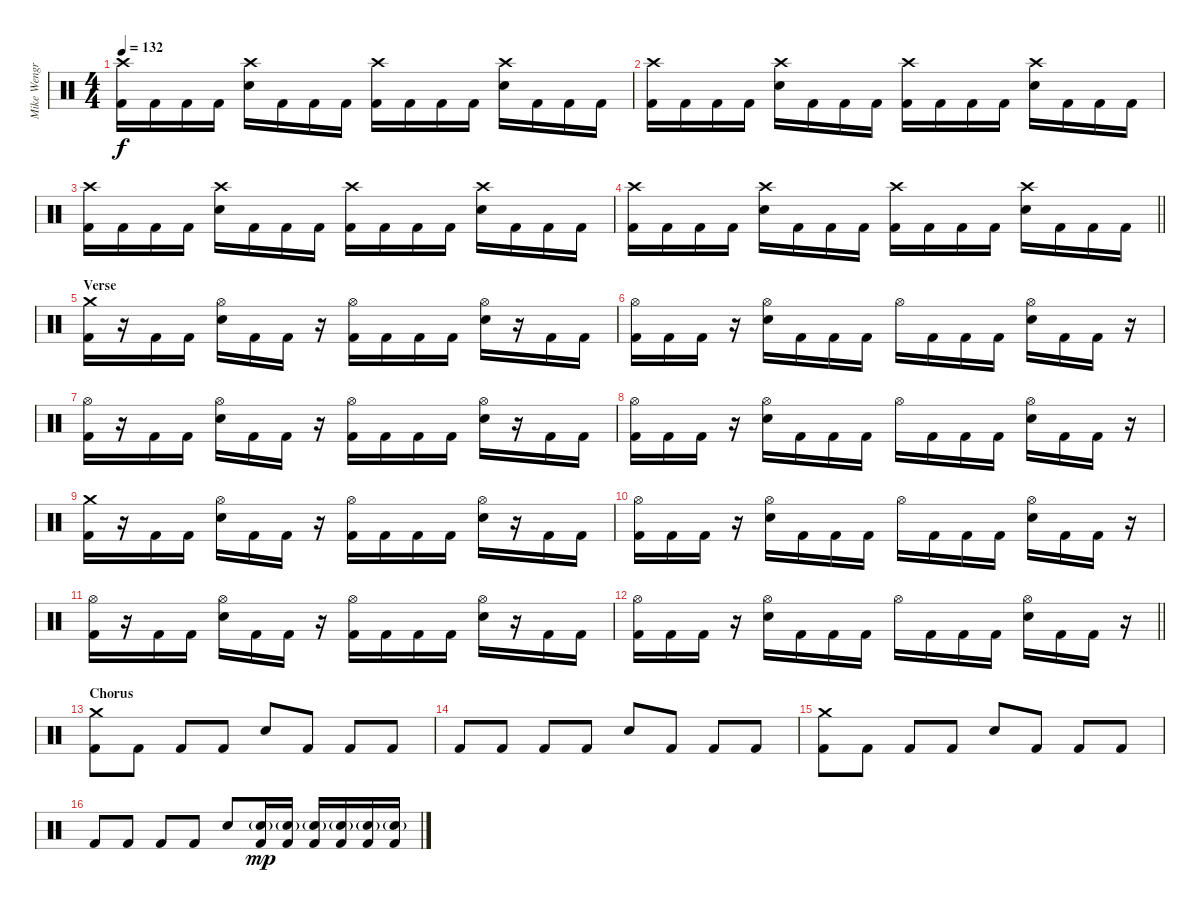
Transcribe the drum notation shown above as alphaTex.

\track ("Mike Wengren" "Mike Wengr") {instrument percussion}
\staff {score}
\articulation defaults
\ts (4 4)
\tempo 132
\clef neutral
\ks c
("Crash high (hit)" "Kick (hit) 2").16{dy f} "Kick (hit) 2".16 "Kick (hit) 2".16 "Kick (hit) 2".16 ("Crash high (hit)" "Electric Snare (hit)").16 "Kick (hit) 2".16 "Kick (hit) 2".16 "Kick (hit) 2".16 ("Crash high (hit)" "Kick (hit) 2").16 "Kick (hit) 2".16 "Kick (hit) 2".16 "Kick (hit) 2".16 ("Crash high (hit)" "Electric Snare (hit)").16 "Kick (hit) 2".16 "Kick (hit) 2".16 "Kick (hit) 2".16 |
("Crash high (hit)" "Kick (hit) 2").16 "Kick (hit) 2".16 "Kick (hit) 2".16 "Kick (hit) 2".16 ("Crash high (hit)" "Electric Snare (hit)").16 "Kick (hit) 2".16 "Kick (hit) 2".16 "Kick (hit) 2".16 ("Crash high (hit)" "Kick (hit) 2").16 "Kick (hit) 2".16 "Kick (hit) 2".16 "Kick (hit) 2".16 ("Crash high (hit)" "Electric Snare (hit)").16 "Kick (hit) 2".16 "Kick (hit) 2".16 "Kick (hit) 2".16 |
("Crash high (hit)" "Kick (hit) 2").16 "Kick (hit) 2".16 "Kick (hit) 2".16 "Kick (hit) 2".16 ("Crash high (hit)" "Electric Snare (hit)").16 "Kick (hit) 2".16 "Kick (hit) 2".16 "Kick (hit) 2".16 ("Crash high (hit)" "Kick (hit) 2").16 "Kick (hit) 2".16 "Kick (hit) 2".16 "Kick (hit) 2".16 ("Crash high (hit)" "Electric Snare (hit)").16 "Kick (hit) 2".16 "Kick (hit) 2".16 "Kick (hit) 2".16 |
\barLineRight lightlight
("Crash high (hit)" "Kick (hit) 2").16 "Kick (hit) 2".16 "Kick (hit) 2".16 "Kick (hit) 2".16 ("Crash high (hit)" "Electric Snare (hit)").16 "Kick (hit) 2".16 "Kick (hit) 2".16 "Kick (hit) 2".16 ("Crash high (hit)" "Kick (hit) 2").16 "Kick (hit) 2".16 "Kick (hit) 2".16 "Kick (hit) 2".16 ("Crash high (hit)" "Electric Snare (hit)").16 "Kick (hit) 2".16 "Kick (hit) 2".16 "Kick (hit) 2".16 |
\section ("" "Verse")
("Crash medium (hit)" "Kick (hit) 2").16 r.16 "Kick (hit) 2".16 "Kick (hit) 2".16 ("Hi-Hat (open)" "Electric Snare (hit)").16 "Kick (hit) 2".16 "Kick (hit) 2".16 r.16 ("Hi-Hat (open)" "Kick (hit) 2").16 "Kick (hit) 2".16 "Kick (hit) 2".16 "Kick (hit) 2".16 ("Hi-Hat (open)" "Electric Snare (hit)").16 r.16 "Kick (hit) 2".16 "Kick (hit) 2".16 |
("Hi-Hat (open)" "Kick (hit) 2").16 "Kick (hit) 2".16 "Kick (hit) 2".16 r.16 ("Hi-Hat (open)" "Electric Snare (hit)").16 "Kick (hit) 2".16 "Kick (hit) 2".16 "Kick (hit) 2".16 "Hi-Hat (open)".16 "Kick (hit) 2".16 "Kick (hit) 2".16 "Kick (hit) 2".16 ("Hi-Hat (open)" "Electric Snare (hit)").16 "Kick (hit) 2".16 "Kick (hit) 2".16 r.16 |
("Hi-Hat (open)" "Kick (hit) 2").16 r.16 "Kick (hit) 2".16 "Kick (hit) 2".16 ("Hi-Hat (open)" "Electric Snare (hit)").16 "Kick (hit) 2".16 "Kick (hit) 2".16 r.16 ("Hi-Hat (open)" "Kick (hit) 2").16 "Kick (hit) 2".16 "Kick (hit) 2".16 "Kick (hit) 2".16 ("Hi-Hat (open)" "Electric Snare (hit)").16 r.16 "Kick (hit) 2".16 "Kick (hit) 2".16 |
("Hi-Hat (open)" "Kick (hit) 2").16 "Kick (hit) 2".16 "Kick (hit) 2".16 r.16 ("Hi-Hat (open)" "Electric Snare (hit)").16 "Kick (hit) 2".16 "Kick (hit) 2".16 "Kick (hit) 2".16 "Hi-Hat (open)".16 "Kick (hit) 2".16 "Kick (hit) 2".16 "Kick (hit) 2".16 ("Hi-Hat (open)" "Electric Snare (hit)").16 "Kick (hit) 2".16 "Kick (hit) 2".16 r.16 |
("Crash medium (hit)" "Kick (hit) 2").16 r.16 "Kick (hit) 2".16 "Kick (hit) 2".16 ("Hi-Hat (open)" "Electric Snare (hit)").16 "Kick (hit) 2".16 "Kick (hit) 2".16 r.16 ("Hi-Hat (open)" "Kick (hit) 2").16 "Kick (hit) 2".16 "Kick (hit) 2".16 "Kick (hit) 2".16 ("Hi-Hat (open)" "Electric Snare (hit)").16 r.16 "Kick (hit) 2".16 "Kick (hit) 2".16 |
("Hi-Hat (open)" "Kick (hit) 2").16 "Kick (hit) 2".16 "Kick (hit) 2".16 r.16 ("Hi-Hat (open)" "Electric Snare (hit)").16 "Kick (hit) 2".16 "Kick (hit) 2".16 "Kick (hit) 2".16 "Hi-Hat (open)".16 "Kick (hit) 2".16 "Kick (hit) 2".16 "Kick (hit) 2".16 ("Hi-Hat (open)" "Electric Snare (hit)").16 "Kick (hit) 2".16 "Kick (hit) 2".16 r.16 |
("Hi-Hat (open)" "Kick (hit) 2").16 r.16 "Kick (hit) 2".16 "Kick (hit) 2".16 ("Hi-Hat (open)" "Electric Snare (hit)").16 "Kick (hit) 2".16 "Kick (hit) 2".16 r.16 ("Hi-Hat (open)" "Kick (hit) 2").16 "Kick (hit) 2".16 "Kick (hit) 2".16 "Kick (hit) 2".16 ("Hi-Hat (open)" "Electric Snare (hit)").16 r.16 "Kick (hit) 2".16 "Kick (hit) 2".16 |
\barLineRight lightlight
("Hi-Hat (open)" "Kick (hit) 2").16 "Kick (hit) 2".16 "Kick (hit) 2".16 r.16 ("Hi-Hat (open)" "Electric Snare (hit)").16 "Kick (hit) 2".16 "Kick (hit) 2".16 "Kick (hit) 2".16 "Hi-Hat (open)".16 "Kick (hit) 2".16 "Kick (hit) 2".16 "Kick (hit) 2".16 ("Hi-Hat (open)" "Electric Snare (hit)").16 "Kick (hit) 2".16 "Kick (hit) 2".16 r.16 |
\section ("" "Chorus")
("Crash medium (hit)" "Kick (hit) 2").8 "Kick (hit) 2".8 "Kick (hit) 2".8 "Kick (hit) 2".8 "Electric Snare (hit)".8 "Kick (hit) 2".8 "Kick (hit) 2".8 "Kick (hit) 2".8 |
"Kick (hit) 2".8 "Kick (hit) 2".8 "Kick (hit) 2".8 "Kick (hit) 2".8 "Electric Snare (hit)".8 "Kick (hit) 2".8 "Kick (hit) 2".8 "Kick (hit) 2".8 |
("Crash medium (hit)" "Kick (hit) 2").8 "Kick (hit) 2".8 "Kick (hit) 2".8 "Kick (hit) 2".8 "Electric Snare (hit)".8 "Kick (hit) 2".8 "Kick (hit) 2".8 "Kick (hit) 2".8 |
"Kick (hit) 2".8 "Kick (hit) 2".8 "Kick (hit) 2".8 "Kick (hit) 2".8 "Electric Snare (hit)".8 ("Electric Snare (hit)"{g} "Kick (hit) 2").16{dy mp} ("Electric Snare (hit)"{g} "Kick (hit) 2").16 ("Electric Snare (hit)"{g} "Kick (hit) 2").16 ("Electric Snare (hit)"{g} "Kick (hit) 2").16 ("Electric Snare (hit)"{g} "Kick (hit) 2").16 ("Electric Snare (hit)"{g} "Kick (hit) 2").16
